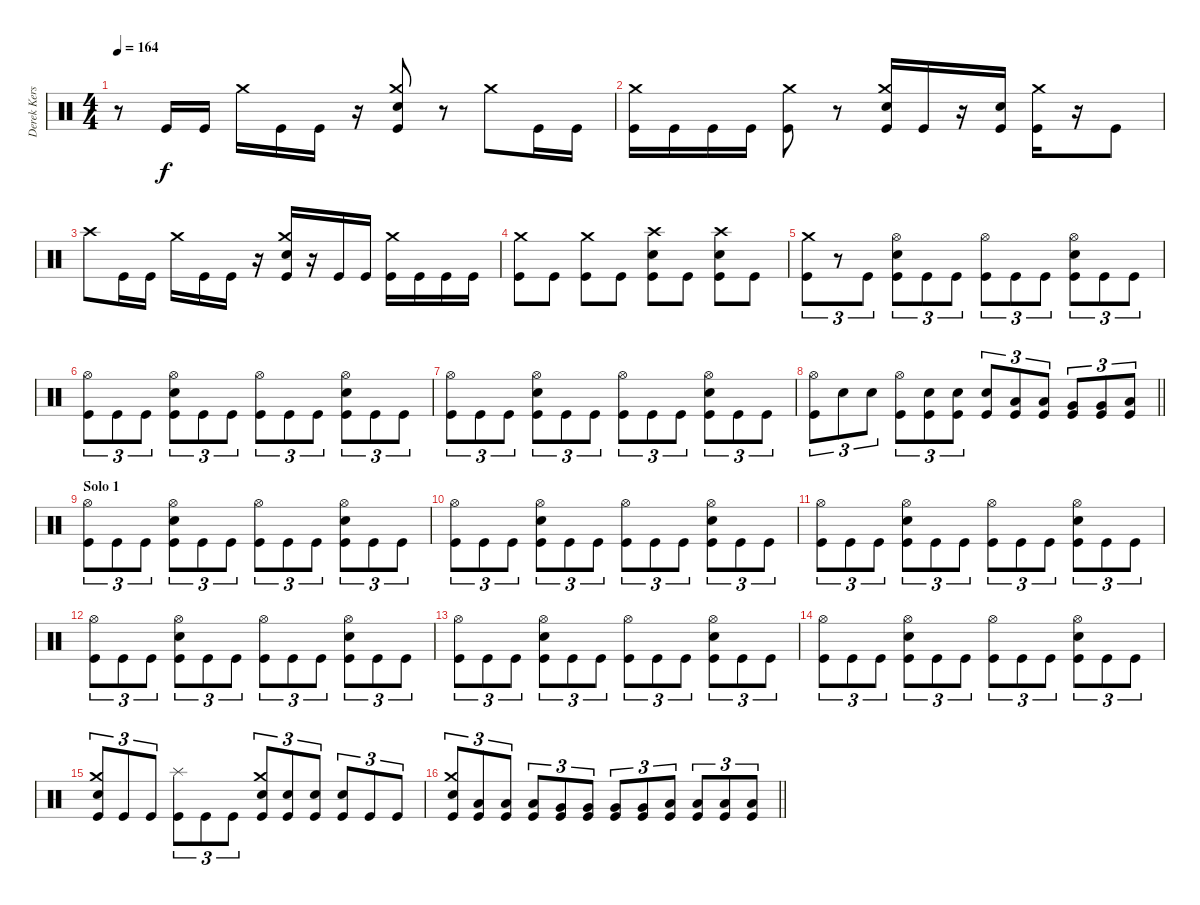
\track ("Derek Kerswill" "Derek Kers") {instrument percussion}
\staff {score}
\articulation defaults
\ts (4 4)
\tempo 164
\clef neutral
\ks c
r.8{dy f} "Kick (hit)".16 "Kick (hit)".16 "Crash medium (hit)".16 "Kick (hit)".16 "Kick (hit)".16 r.16 ("Crash medium (hit)" "Snare (hit) 2" "Kick (hit)").8 r.8 "Crash medium (hit)".8 "Kick (hit)".16 "Kick (hit)".16 |
("Crash medium (hit)" "Kick (hit)").16 "Kick (hit)".16 "Kick (hit)".16 "Kick (hit)".16 ("Crash medium (hit)" "Kick (hit)").8 r.8 ("Crash medium (hit)" "Snare (hit) 2" "Kick (hit)").16 "Kick (hit)".16 r.16 ("Snare (hit) 2" "Kick (hit)").16 ("Crash medium (hit)" "Kick (hit)").16 r.16 "Kick (hit)".8 |
"Crash high (hit)".8 "Kick (hit)".16 "Kick (hit)".16 "Crash medium (hit)".16 "Kick (hit)".16 "Kick (hit)".16 r.16 ("Crash medium (hit)" "Snare (hit) 2" "Kick (hit)").16 r.16 "Kick (hit)".16 "Kick (hit)".16 ("Crash medium (hit)" "Kick (hit)").16 "Kick (hit)".16 "Kick (hit)".16 "Kick (hit)".16 |
("Crash medium (hit)" "Kick (hit)").8 "Kick (hit)".8 ("Crash medium (hit)" "Kick (hit)").8 "Kick (hit)".8 ("Crash high (hit)" "Snare (hit) 2" "Kick (hit)").8 "Kick (hit)".8 ("Crash high (hit)" "Snare (hit) 2" "Kick (hit)").8 "Kick (hit)".8 |
("Crash medium (hit)" "Kick (hit)").8{tu (3 2)} r.8{tu (3 2)} "Kick (hit)".8{tu (3 2)} ("Hi-Hat (open)" "Snare (hit) 2" "Kick (hit)").8{tu (3 2)} "Kick (hit)".8{tu (3 2)} "Kick (hit)".8{tu (3 2)} ("Hi-Hat (open)" "Kick (hit)").8{tu (3 2)} "Kick (hit)".8{tu (3 2)} "Kick (hit)".8{tu (3 2)} ("Hi-Hat (open)" "Snare (hit) 2" "Kick (hit)").8{tu (3 2)} "Kick (hit)".8{tu (3 2)} "Kick (hit)".8{tu (3 2)} |
("Hi-Hat (open)" "Kick (hit)").8{tu (3 2)} "Kick (hit)".8{tu (3 2)} "Kick (hit)".8{tu (3 2)} ("Snare (hit) 2" "Hi-Hat (open)" "Kick (hit)").8{tu (3 2)} "Kick (hit)".8{tu (3 2)} "Kick (hit)".8{tu (3 2)} ("Hi-Hat (open)" "Kick (hit)").8{tu (3 2)} "Kick (hit)".8{tu (3 2)} "Kick (hit)".8{tu (3 2)} ("Snare (hit) 2" "Hi-Hat (open)" "Kick (hit)").8{tu (3 2)} "Kick (hit)".8{tu (3 2)} "Kick (hit)".8{tu (3 2)} |
("Hi-Hat (open)" "Kick (hit)").8{tu (3 2)} "Kick (hit)".8{tu (3 2)} "Kick (hit)".8{tu (3 2)} ("Snare (hit) 2" "Hi-Hat (open)" "Kick (hit)").8{tu (3 2)} "Kick (hit)".8{tu (3 2)} "Kick (hit)".8{tu (3 2)} ("Hi-Hat (open)" "Kick (hit)").8{tu (3 2)} "Kick (hit)".8{tu (3 2)} "Kick (hit)".8{tu (3 2)} ("Snare (hit) 2" "Hi-Hat (open)" "Kick (hit)").8{tu (3 2)} "Kick (hit)".8{tu (3 2)} "Kick (hit)".8{tu (3 2)} |
\barLineRight lightlight
("Hi-Hat (open)" "Kick (hit)").8{tu (3 2)} "Snare (hit) 2".8{tu (3 2)} "Snare (hit) 2".8{tu (3 2)} ("Hi-Hat (open)" "Kick (hit)").8{tu (3 2)} ("Snare (hit) 2" "Kick (hit)").8{tu (3 2)} ("Snare (hit) 2" "Kick (hit)").8{tu (3 2)} ("Snare (hit) 2" "Kick (hit)").8{tu (3 2)} ("Low Tom (hit)" "Kick (hit)").8{tu (3 2)} ("Low Tom (hit)" "Kick (hit)").8{tu (3 2)} ("Very Low Tom (hit)" "Kick (hit)").8{tu (3 2)} ("Very Low Tom (hit)" "Kick (hit)").8{tu (3 2)} ("Low Floor Tom (hit)" "Kick (hit)").8{tu (3 2)} |
\section ("" "Solo 1")
("Hi-Hat (open)" "Kick (hit)").8{tu (3 2)} "Kick (hit)".8{tu (3 2)} "Kick (hit)".8{tu (3 2)} ("Snare (hit) 2" "Hi-Hat (open)" "Kick (hit)").8{tu (3 2)} "Kick (hit)".8{tu (3 2)} "Kick (hit)".8{tu (3 2)} ("Hi-Hat (open)" "Kick (hit)").8{tu (3 2)} "Kick (hit)".8{tu (3 2)} "Kick (hit)".8{tu (3 2)} ("Snare (hit) 2" "Hi-Hat (open)" "Kick (hit)").8{tu (3 2)} "Kick (hit)".8{tu (3 2)} "Kick (hit)".8{tu (3 2)} |
("Hi-Hat (open)" "Kick (hit)").8{tu (3 2)} "Kick (hit)".8{tu (3 2)} "Kick (hit)".8{tu (3 2)} ("Snare (hit) 2" "Hi-Hat (open)" "Kick (hit)").8{tu (3 2)} "Kick (hit)".8{tu (3 2)} "Kick (hit)".8{tu (3 2)} ("Hi-Hat (open)" "Kick (hit)").8{tu (3 2)} "Kick (hit)".8{tu (3 2)} "Kick (hit)".8{tu (3 2)} ("Snare (hit) 2" "Hi-Hat (open)" "Kick (hit)").8{tu (3 2)} "Kick (hit)".8{tu (3 2)} "Kick (hit)".8{tu (3 2)} |
("Hi-Hat (open)" "Kick (hit)").8{tu (3 2)} "Kick (hit)".8{tu (3 2)} "Kick (hit)".8{tu (3 2)} ("Snare (hit) 2" "Hi-Hat (open)" "Kick (hit)").8{tu (3 2)} "Kick (hit)".8{tu (3 2)} "Kick (hit)".8{tu (3 2)} ("Hi-Hat (open)" "Kick (hit)").8{tu (3 2)} "Kick (hit)".8{tu (3 2)} "Kick (hit)".8{tu (3 2)} ("Snare (hit) 2" "Hi-Hat (open)" "Kick (hit)").8{tu (3 2)} "Kick (hit)".8{tu (3 2)} "Kick (hit)".8{tu (3 2)} |
("Hi-Hat (open)" "Kick (hit)").8{tu (3 2)} "Kick (hit)".8{tu (3 2)} "Kick (hit)".8{tu (3 2)} ("Snare (hit) 2" "Hi-Hat (open)" "Kick (hit)").8{tu (3 2)} "Kick (hit)".8{tu (3 2)} "Kick (hit)".8{tu (3 2)} ("Hi-Hat (open)" "Kick (hit)").8{tu (3 2)} "Kick (hit)".8{tu (3 2)} "Kick (hit)".8{tu (3 2)} ("Snare (hit) 2" "Hi-Hat (open)" "Kick (hit)").8{tu (3 2)} "Kick (hit)".8{tu (3 2)} "Kick (hit)".8{tu (3 2)} |
("Hi-Hat (open)" "Kick (hit)").8{tu (3 2)} "Kick (hit)".8{tu (3 2)} "Kick (hit)".8{tu (3 2)} ("Snare (hit) 2" "Hi-Hat (open)" "Kick (hit)").8{tu (3 2)} "Kick (hit)".8{tu (3 2)} "Kick (hit)".8{tu (3 2)} ("Hi-Hat (open)" "Kick (hit)").8{tu (3 2)} "Kick (hit)".8{tu (3 2)} "Kick (hit)".8{tu (3 2)} ("Snare (hit) 2" "Hi-Hat (open)" "Kick (hit)").8{tu (3 2)} "Kick (hit)".8{tu (3 2)} "Kick (hit)".8{tu (3 2)} |
("Hi-Hat (open)" "Kick (hit)").8{tu (3 2)} "Kick (hit)".8{tu (3 2)} "Kick (hit)".8{tu (3 2)} ("Snare (hit) 2" "Hi-Hat (open)" "Kick (hit)").8{tu (3 2)} "Kick (hit)".8{tu (3 2)} "Kick (hit)".8{tu (3 2)} ("Hi-Hat (open)" "Kick (hit)").8{tu (3 2)} "Kick (hit)".8{tu (3 2)} "Kick (hit)".8{tu (3 2)} ("Snare (hit) 2" "Hi-Hat (open)" "Kick (hit)").8{tu (3 2)} "Kick (hit)".8{tu (3 2)} "Kick (hit)".8{tu (3 2)} |
("Crash medium (hit)" "Snare (hit) 2" "Kick (hit)").8{tu (3 2)} "Kick (hit)".8{tu (3 2)} "Kick (hit)".8{tu (3 2)} ("Splash (hit)" "Kick (hit)").8{tu (3 2)} "Kick (hit)".8{tu (3 2)} "Kick (hit)".8{tu (3 2)} ("Crash medium (hit)" "Snare (hit) 2" "Kick (hit)").8{tu (3 2)} ("Snare (hit) 2" "Kick (hit)").8{tu (3 2)} ("Snare (hit) 2" "Kick (hit)").8{tu (3 2)} ("Snare (hit) 2" "Kick (hit)").8{tu (3 2)} "Kick (hit)".8{tu (3 2)} "Kick (hit)".8{tu (3 2)} |
\barLineRight lightlight
("Crash medium (hit)" "Snare (hit) 2" "Kick (hit)").8{tu (3 2)} ("Low Tom (hit)" "Kick (hit)").8{tu (3 2)} ("Low Tom (hit)" "Kick (hit)").8{tu (3 2)} ("Low Tom (hit)" "Kick (hit)").8{tu (3 2)} ("Very Low Tom (hit)" "Kick (hit)").8{tu (3 2)} ("Very Low Tom (hit)" "Kick (hit)").8{tu (3 2)} ("Very Low Tom (hit)" "Kick (hit)").8{tu (3 2)} ("Very Low Tom (hit)" "Kick (hit)").8{tu (3 2)} ("Low Floor Tom (hit)" "Kick (hit)").8{tu (3 2)} ("Low Floor Tom (hit)" "Kick (hit)").8{tu (3 2)} ("Low Floor Tom (hit)" "Kick (hit)").8{tu (3 2)} ("Low Floor Tom (hit)" "Kick (hit)").8{tu (3 2)}
